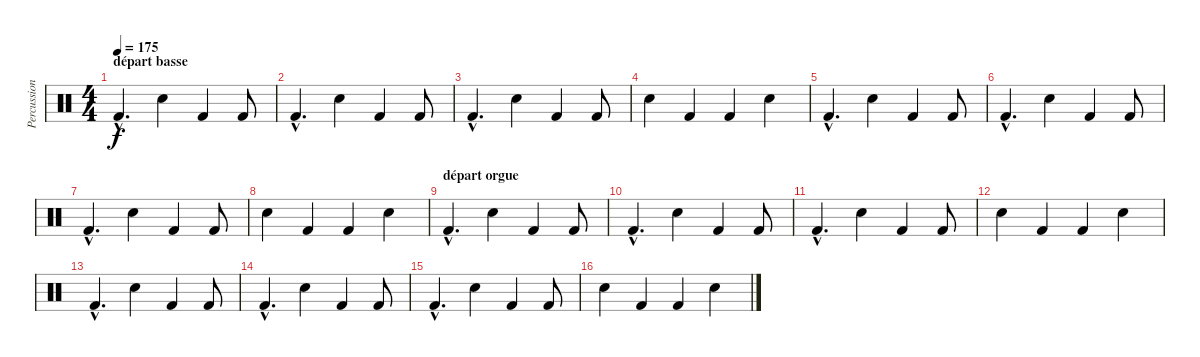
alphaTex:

\track ("Percussions" "Percussion") {instrument percussion}
\staff {score}
\articulation defaults
\ts (4 4)
\section ("" "départ basse")
\tempo 175
\clef neutral
\ks c "Kick (hit) 2"{hac}.4{d dy f} "Snare (hit) 2".4 "Kick (hit) 2".4 "Kick (hit) 2".8
|
"Kick (hit) 2"{hac}.4{d} "Snare (hit) 2".4 "Kick (hit) 2".4 "Kick (hit) 2".8 |
"Kick (hit) 2"{hac}.4{d} "Snare (hit) 2".4 "Kick (hit) 2".4 "Kick (hit) 2".8 |
"Snare (hit) 2".4 "Kick (hit) 2".4 "Kick (hit) 2".4 "Snare (hit) 2".4 |
"Kick (hit) 2"{hac}.4{d} "Snare (hit) 2".4 "Kick (hit) 2".4 "Kick (hit) 2".8 |
"Kick (hit) 2"{hac}.4{d} "Snare (hit) 2".4 "Kick (hit) 2".4 "Kick (hit) 2".8 |
"Kick (hit) 2"{hac}.4{d} "Snare (hit) 2".4 "Kick (hit) 2".4 "Kick (hit) 2".8 |
"Snare (hit) 2".4 "Kick (hit) 2".4 "Kick (hit) 2".4 "Snare (hit) 2".4 |
\section ("" "départ orgue")
"Kick (hit) 2"{hac}.4{d} "Snare (hit) 2".4 "Kick (hit) 2".4 "Kick (hit) 2".8 |
"Kick (hit) 2"{hac}.4{d} "Snare (hit) 2".4 "Kick (hit) 2".4 "Kick (hit) 2".8 |
"Kick (hit) 2"{hac}.4{d} "Snare (hit) 2".4 "Kick (hit) 2".4 "Kick (hit) 2".8 |
"Snare (hit) 2".4 "Kick (hit) 2".4 "Kick (hit) 2".4 "Snare (hit) 2".4 |
"Kick (hit) 2"{hac}.4{d} "Snare (hit) 2".4 "Kick (hit) 2".4 "Kick (hit) 2".8 |
"Kick (hit) 2"{hac}.4{d} "Snare (hit) 2".4 "Kick (hit) 2".4 "Kick (hit) 2".8 |
"Kick (hit) 2"{hac}.4{d} "Snare (hit) 2".4 "Kick (hit) 2".4 "Kick (hit) 2".8 |
"Snare (hit) 2".4 "Kick (hit) 2".4 "Kick (hit) 2".4 "Snare (hit) 2".4
